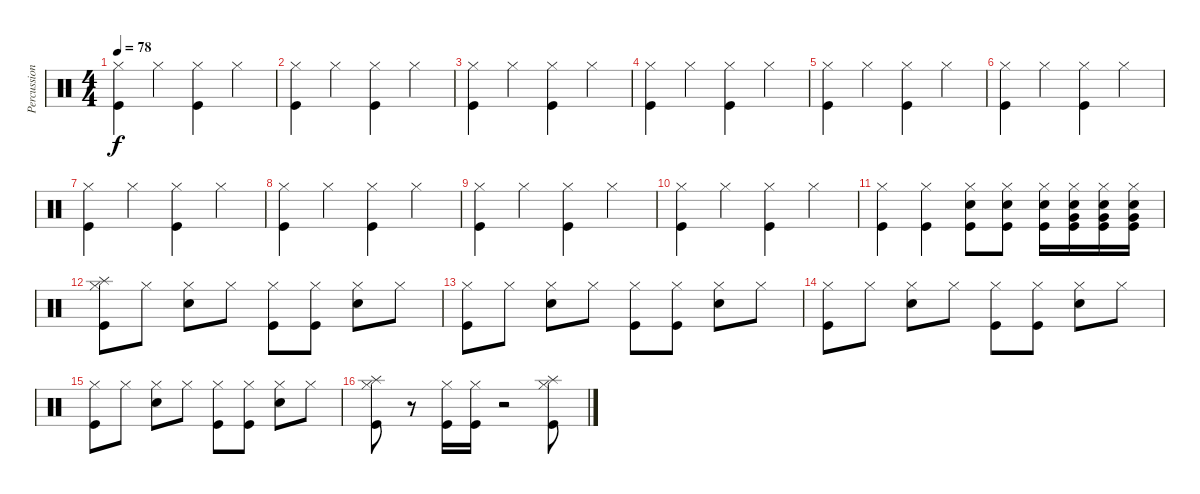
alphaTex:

\track ("Percussion" "Percussion") {instrument percussion}
\staff {score}
\articulation defaults
\ts (4 4)
\tempo 78
\clef neutral
\ks c
("Hi-Hat (closed)" "Kick (hit)").4{dy f} "Hi-Hat (closed)".4 ("Hi-Hat (closed)" "Kick (hit)").4 "Hi-Hat (closed)".4 |
("Hi-Hat (closed)" "Kick (hit)").4 "Hi-Hat (closed)".4 ("Hi-Hat (closed)" "Kick (hit)").4 "Hi-Hat (closed)".4 |
("Hi-Hat (closed)" "Kick (hit)").4 "Hi-Hat (closed)".4 ("Hi-Hat (closed)" "Kick (hit)").4 "Hi-Hat (closed)".4 |
("Hi-Hat (closed)" "Kick (hit)").4 "Hi-Hat (closed)".4 ("Hi-Hat (closed)" "Kick (hit)").4 "Hi-Hat (closed)".4 |
("Hi-Hat (closed)" "Kick (hit)").4 "Hi-Hat (closed)".4 ("Hi-Hat (closed)" "Kick (hit)").4 "Hi-Hat (closed)".4 |
("Hi-Hat (closed)" "Kick (hit)").4 "Hi-Hat (closed)".4 ("Hi-Hat (closed)" "Kick (hit)").4 "Hi-Hat (closed)".4 |
("Hi-Hat (closed)" "Kick (hit)").4 "Hi-Hat (closed)".4 ("Hi-Hat (closed)" "Kick (hit)").4 "Hi-Hat (closed)".4 |
("Hi-Hat (closed)" "Kick (hit)").4 "Hi-Hat (closed)".4 ("Hi-Hat (closed)" "Kick (hit)").4 "Hi-Hat (closed)".4 |
("Hi-Hat (closed)" "Kick (hit)").4 "Hi-Hat (closed)".4 ("Hi-Hat (closed)" "Kick (hit)").4 "Hi-Hat (closed)".4 |
("Hi-Hat (closed)" "Kick (hit)").4 "Hi-Hat (closed)".4 ("Hi-Hat (closed)" "Kick (hit)").4 "Hi-Hat (closed)".4 |
("Hi-Hat (closed)" "Kick (hit)").4 ("Hi-Hat (closed)" "Kick (hit)").4 ("Hi-Hat (closed)" "Snare (hit) 2" "Kick (hit)").8 ("Hi-Hat (closed)" "Snare (hit) 2" "Kick (hit)").8 ("Hi-Hat (closed)" "Snare (hit) 2" "Kick (hit)").16 ("Hi-Hat (closed)" "Snare (hit) 2" "Very Low Tom (hit)" "Kick (hit)").16 ("Hi-Hat (closed)" "Snare (hit) 2" "Very Low Tom (hit)" "Kick (hit)").16 ("Hi-Hat (closed)" "Snare (hit) 2" "Very Low Tom (hit)" "Kick (hit)").16 |
("Splash (hit)" "Hi-Hat (closed)" "Kick (hit)").8 "Hi-Hat (closed)".8 ("Hi-Hat (closed)" "Snare (hit) 2").8 "Hi-Hat (closed)".8 ("Hi-Hat (closed)" "Kick (hit)").8 ("Hi-Hat (closed)" "Kick (hit)").8 ("Hi-Hat (closed)" "Snare (hit) 2").8 "Hi-Hat (closed)".8 |
("Hi-Hat (closed)" "Kick (hit)").8 "Hi-Hat (closed)".8 ("Hi-Hat (closed)" "Snare (hit) 2").8 "Hi-Hat (closed)".8 ("Hi-Hat (closed)" "Kick (hit)").8 ("Hi-Hat (closed)" "Kick (hit)").8 ("Hi-Hat (closed)" "Snare (hit) 2").8 "Hi-Hat (closed)".8 |
("Hi-Hat (closed)" "Kick (hit)").8 "Hi-Hat (closed)".8 ("Hi-Hat (closed)" "Snare (hit) 2").8 "Hi-Hat (closed)".8 ("Hi-Hat (closed)" "Kick (hit)").8 ("Hi-Hat (closed)" "Kick (hit)").8 ("Hi-Hat (closed)" "Snare (hit) 2").8 "Hi-Hat (closed)".8 |
("Hi-Hat (closed)" "Kick (hit)").8 "Hi-Hat (closed)".8 ("Hi-Hat (closed)" "Snare (hit) 2").8 "Hi-Hat (closed)".8 ("Hi-Hat (closed)" "Kick (hit)").8 ("Hi-Hat (closed)" "Kick (hit)").8 ("Hi-Hat (closed)" "Snare (hit) 2").8 "Hi-Hat (closed)".8 |
("Splash (hit)" "Hi-Hat (closed)" "Kick (hit)").8 r.8 ("Hi-Hat (closed)" "Kick (hit)").16 ("Hi-Hat (closed)" "Kick (hit)").16 r.2 ("Splash (hit)" "Hi-Hat (closed)" "Kick (hit)").8
